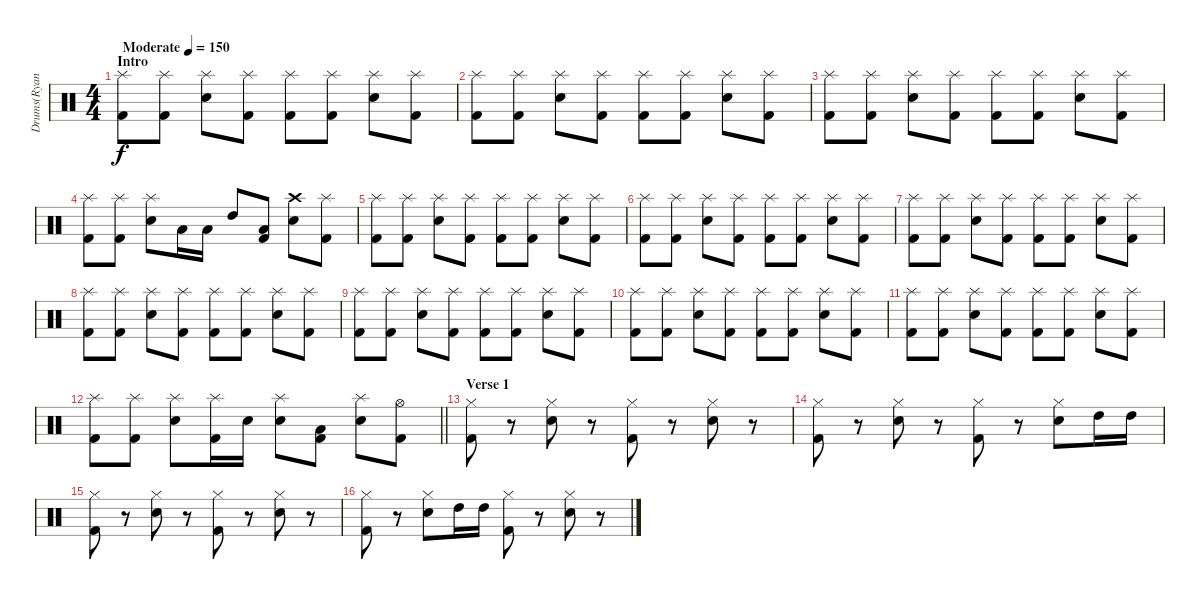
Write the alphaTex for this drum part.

\track ("Drums(Ryan)" "Drums(Ryan") {instrument percussion}
\staff {score}
\articulation defaults
\ts (4 4)
\section ("" "Intro")
\tempo (150 "Moderate")
\clef neutral
\ks c
("Splash (hit)" "Kick (hit) 2").8{dy f} ("Splash (hit)" "Kick (hit) 2").8 ("Splash (hit)" "Electric Snare (hit)").8 ("Splash (hit)" "Kick (hit) 2").8 ("Splash (hit)" "Kick (hit) 2").8 ("Splash (hit)" "Kick (hit) 2").8 ("Splash (hit)" "Electric Snare (hit)").8 ("Splash (hit)" "Kick (hit) 2").8 |
("Splash (hit)" "Kick (hit) 2").8 ("Splash (hit)" "Kick (hit) 2").8 ("Splash (hit)" "Electric Snare (hit)").8 ("Splash (hit)" "Kick (hit) 2").8 ("Splash (hit)" "Kick (hit) 2").8 ("Splash (hit)" "Kick (hit) 2").8 ("Splash (hit)" "Electric Snare (hit)").8 ("Splash (hit)" "Kick (hit) 2").8 |
("Splash (hit)" "Kick (hit) 2").8 ("Splash (hit)" "Kick (hit) 2").8 ("Splash (hit)" "Electric Snare (hit)").8 ("Splash (hit)" "Kick (hit) 2").8 ("Splash (hit)" "Kick (hit) 2").8 ("Splash (hit)" "Kick (hit) 2").8 ("Splash (hit)" "Electric Snare (hit)").8 ("Splash (hit)" "Kick (hit) 2").8 |
("Splash (hit)" "Kick (hit) 2").8 ("Splash (hit)" "Kick (hit) 2").8 ("Splash (hit)" "Electric Snare (hit)").8 "Low Tom (hit)".16 "Low Tom (hit)".16 "High Tom (hit)".8 ("Low Tom (hit)" "Kick (hit) 2").8 ("Crash high (hit)" "Electric Snare (hit)").8 ("Splash (hit)" "Kick (hit) 2").8 |
("Splash (hit)" "Kick (hit) 2").8 ("Splash (hit)" "Kick (hit) 2").8 ("Splash (hit)" "Electric Snare (hit)").8 ("Splash (hit)" "Kick (hit) 2").8 ("Splash (hit)" "Kick (hit) 2").8 ("Splash (hit)" "Kick (hit) 2").8 ("Splash (hit)" "Electric Snare (hit)").8 ("Splash (hit)" "Kick (hit) 2").8 |
("Splash (hit)" "Kick (hit) 2").8 ("Splash (hit)" "Kick (hit) 2").8 ("Splash (hit)" "Electric Snare (hit)").8 ("Splash (hit)" "Kick (hit) 2").8 ("Splash (hit)" "Kick (hit) 2").8 ("Splash (hit)" "Kick (hit) 2").8 ("Splash (hit)" "Electric Snare (hit)").8 ("Splash (hit)" "Kick (hit) 2").8 |
("Splash (hit)" "Kick (hit) 2").8 ("Splash (hit)" "Kick (hit) 2").8 ("Splash (hit)" "Electric Snare (hit)").8 ("Splash (hit)" "Kick (hit) 2").8 ("Splash (hit)" "Kick (hit) 2").8 ("Splash (hit)" "Kick (hit) 2").8 ("Splash (hit)" "Electric Snare (hit)").8 ("Splash (hit)" "Kick (hit) 2").8 |
("Splash (hit)" "Kick (hit) 2").8 ("Splash (hit)" "Kick (hit) 2").8 ("Splash (hit)" "Electric Snare (hit)").8 ("Splash (hit)" "Kick (hit) 2").8 ("Splash (hit)" "Kick (hit) 2").8 ("Splash (hit)" "Kick (hit) 2").8 ("Splash (hit)" "Electric Snare (hit)").8 ("Splash (hit)" "Kick (hit) 2").8 |
("Splash (hit)" "Kick (hit) 2").8 ("Splash (hit)" "Kick (hit) 2").8 ("Splash (hit)" "Electric Snare (hit)").8 ("Splash (hit)" "Kick (hit) 2").8 ("Splash (hit)" "Kick (hit) 2").8 ("Splash (hit)" "Kick (hit) 2").8 ("Splash (hit)" "Electric Snare (hit)").8 ("Splash (hit)" "Kick (hit) 2").8 |
("Splash (hit)" "Kick (hit) 2").8 ("Splash (hit)" "Kick (hit) 2").8 ("Splash (hit)" "Electric Snare (hit)").8 ("Splash (hit)" "Kick (hit) 2").8 ("Splash (hit)" "Kick (hit) 2").8 ("Splash (hit)" "Kick (hit) 2").8 ("Splash (hit)" "Electric Snare (hit)").8 ("Splash (hit)" "Kick (hit) 2").8 |
("Splash (hit)" "Kick (hit) 2").8 ("Splash (hit)" "Kick (hit) 2").8 ("Splash (hit)" "Electric Snare (hit)").8 ("Splash (hit)" "Kick (hit) 2").8 ("Splash (hit)" "Kick (hit) 2").8 ("Splash (hit)" "Kick (hit) 2").8 ("Splash (hit)" "Electric Snare (hit)").8 ("Splash (hit)" "Kick (hit) 2").8 |
\barLineRight lightlight
("Splash (hit)" "Kick (hit) 2").8 ("Splash (hit)" "Kick (hit) 2").8 ("Splash (hit)" "Electric Snare (hit)").8 ("Splash (hit)" "Kick (hit) 2").16 "Electric Snare (hit)".16 ("Splash (hit)" "Electric Snare (hit)").8 ("Low Tom (hit)" "Kick (hit) 2").8 ("Splash (hit)" "Electric Snare (hit)").8 ("Hi-Hat (open)" "Kick (hit) 2").8 |
\section ("" "Verse 1")
("Hi-Hat (closed)" "Kick (hit) 2").8 r.8 ("Hi-Hat (closed)" "Electric Snare (hit)").8 r.8 ("Hi-Hat (closed)" "Kick (hit) 2").8 r.8 ("Hi-Hat (closed)" "Electric Snare (hit)").8 r.8 |
("Hi-Hat (closed)" "Kick (hit) 2").8 r.8 ("Hi-Hat (closed)" "Electric Snare (hit)").8 r.8 ("Hi-Hat (closed)" "Kick (hit) 2").8 r.8 ("Hi-Hat (closed)" "Electric Snare (hit)").8 "High Tom (hit)".16 "High Tom (hit)".16 |
("Hi-Hat (closed)" "Kick (hit) 2").8 r.8 ("Hi-Hat (closed)" "Electric Snare (hit)").8 r.8 ("Hi-Hat (closed)" "Kick (hit) 2").8 r.8 ("Hi-Hat (closed)" "Electric Snare (hit)").8 r.8 |
("Hi-Hat (closed)" "Kick (hit) 2").8 r.8 ("Hi-Hat (closed)" "Electric Snare (hit)").8 "High Tom (hit)".16 "High Tom (hit)".16 ("Hi-Hat (closed)" "Kick (hit) 2").8 r.8 ("Hi-Hat (closed)" "Electric Snare (hit)").8 r.8
